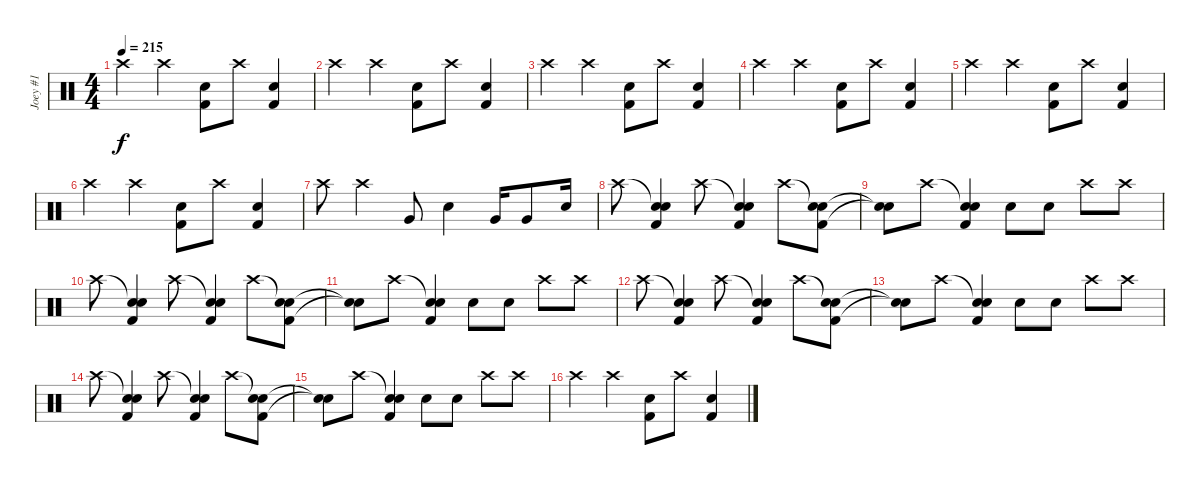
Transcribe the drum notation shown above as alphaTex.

\track ("Joey #1" "Joey #1") {instrument percussion}
\staff {score}
\articulation defaults
\ts (4 4)
\tempo 215
\clef neutral
\ks c "Crash high (hit)".4{dy f} "Crash high (hit)".4
("Kick (hit) 2" "Snare (hit) 2").8 "Crash high (hit)".8 ("Kick (hit) 2" "Snare (hit) 2").4 |
"Crash high (hit)".4 "Crash high (hit)".4 ("Kick (hit) 2" "Snare (hit) 2").8 "Crash high (hit)".8 ("Kick (hit) 2" "Snare (hit) 2").4 |
"Crash high (hit)".4 "Crash high (hit)".4 ("Kick (hit) 2" "Snare (hit) 2").8 "Crash high (hit)".8 ("Kick (hit) 2" "Snare (hit) 2").4 |
"Crash high (hit)".4 "Crash high (hit)".4 ("Kick (hit) 2" "Snare (hit) 2").8 "Crash high (hit)".8 ("Kick (hit) 2" "Snare (hit) 2").4 |
"Crash high (hit)".4 "Crash high (hit)".4 ("Kick (hit) 2" "Snare (hit) 2").8 "Crash high (hit)".8 ("Kick (hit) 2" "Snare (hit) 2").4 |
"Crash high (hit)".4 "Crash high (hit)".4 ("Kick (hit) 2" "Snare (hit) 2").8 "Crash high (hit)".8 ("Kick (hit) 2" "Snare (hit) 2").4 |
"Crash high (hit)".8 "Crash high (hit)".4 "Very Low Tom (hit)".8 "Snare (hit) 2".4 "Very Low Tom (hit)".16 "Very Low Tom (hit)".8 "Snare (hit) 2".16 |
"Crash high (hit)".8{volume 10} ("Snare (hit)"{t} "Kick (hit) 2" "Snare (hit) 2").4 "Crash high (hit)".8 ("Snare (hit)"{t} "Kick (hit) 2" "Snare (hit) 2").4 "Crash high (hit)".8 ("Snare (hit)"{t} "Kick (hit) 2" "Snare (hit) 2").8 |
("Snare (hit)"{t} "Snare (hit)"{t}).8 "Crash high (hit)".8 ("Snare (hit)"{t} "Kick (hit) 2" "Snare (hit) 2").4 "Snare (hit) 2".8 "Snare (hit) 2".8 "Crash high (hit)".8 "Crash high (hit)".8 |
"Crash high (hit)".8{volume 10} ("Snare (hit)"{t} "Kick (hit) 2" "Snare (hit) 2").4 "Crash high (hit)".8 ("Snare (hit)"{t} "Kick (hit) 2" "Snare (hit) 2").4 "Crash high (hit)".8 ("Snare (hit)"{t} "Kick (hit) 2" "Snare (hit) 2").8 |
("Snare (hit)"{t} "Snare (hit)"{t}).8 "Crash high (hit)".8 ("Snare (hit)"{t} "Kick (hit) 2" "Snare (hit) 2").4 "Snare (hit) 2".8 "Snare (hit) 2".8 "Crash high (hit)".8 "Crash high (hit)".8 |
"Crash high (hit)".8{volume 10} ("Snare (hit)"{t} "Kick (hit) 2" "Snare (hit) 2").4 "Crash high (hit)".8 ("Snare (hit)"{t} "Kick (hit) 2" "Snare (hit) 2").4 "Crash high (hit)".8 ("Snare (hit)"{t} "Kick (hit) 2" "Snare (hit) 2").8 |
("Snare (hit)"{t} "Snare (hit)"{t}).8 "Crash high (hit)".8 ("Snare (hit)"{t} "Kick (hit) 2" "Snare (hit) 2").4 "Snare (hit) 2".8 "Snare (hit) 2".8 "Crash high (hit)".8 "Crash high (hit)".8 |
"Crash high (hit)".8{volume 10} ("Snare (hit)"{t} "Kick (hit) 2" "Snare (hit) 2").4 "Crash high (hit)".8 ("Snare (hit)"{t} "Kick (hit) 2" "Snare (hit) 2").4 "Crash high (hit)".8 ("Snare (hit)"{t} "Kick (hit) 2" "Snare (hit) 2").8 |
("Snare (hit)"{t} "Snare (hit)"{t}).8 "Crash high (hit)".8 ("Snare (hit)"{t} "Kick (hit) 2" "Snare (hit) 2").4 "Snare (hit) 2".8 "Snare (hit) 2".8 "Crash high (hit)".8 "Crash high (hit)".8 |
"Crash high (hit)".4 "Crash high (hit)".4 ("Kick (hit) 2" "Snare (hit) 2").8 "Crash high (hit)".8 ("Kick (hit) 2" "Snare (hit) 2").4
